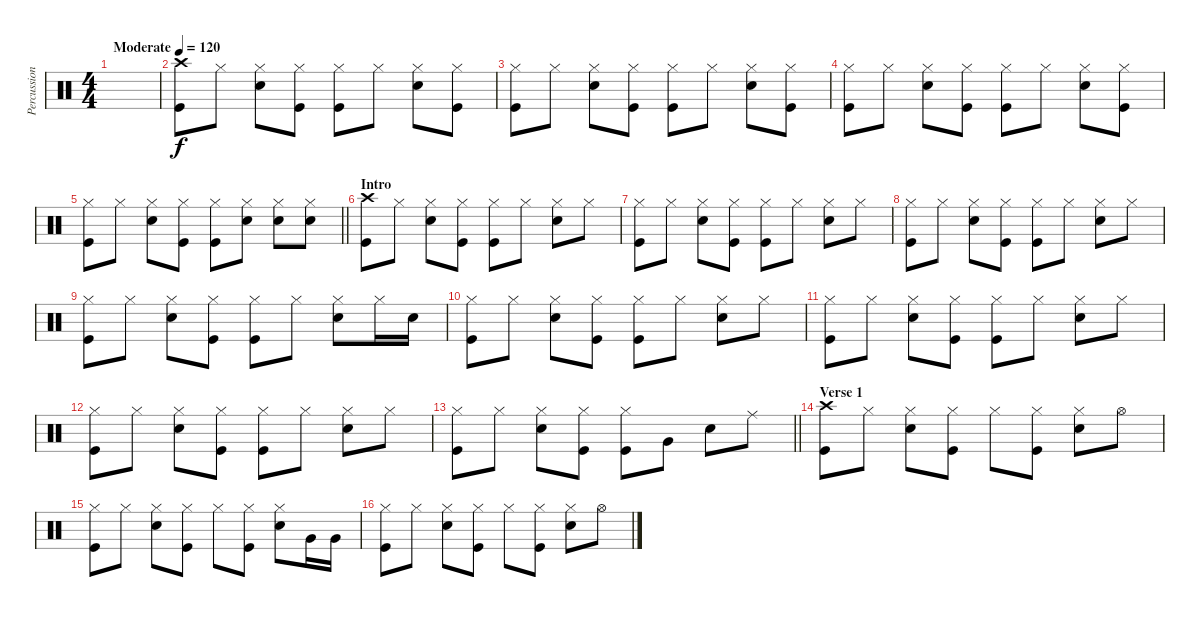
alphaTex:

\track ("Percussion" "Percussion") {instrument percussion}
\staff {score}
\articulation defaults
\ts (4 4)
\tempo (120 "Moderate")
\clef neutral
\ks c
|
("Kick (hit)" "Crash high (hit)").8 "Hi-Hat (closed)".8 ("Hi-Hat (closed)" "Snare (hit) 2").8 ("Kick (hit)" "Hi-Hat (closed)").8 ("Kick (hit)" "Hi-Hat (closed)").8 "Hi-Hat (closed)".8 ("Hi-Hat (closed)" "Snare (hit) 2").8 ("Kick (hit)" "Hi-Hat (closed)").8 |
("Kick (hit)" "Hi-Hat (closed)").8 "Hi-Hat (closed)".8 ("Hi-Hat (closed)" "Snare (hit) 2").8 ("Kick (hit)" "Hi-Hat (closed)").8 ("Kick (hit)" "Hi-Hat (closed)").8 "Hi-Hat (closed)".8 ("Hi-Hat (closed)" "Snare (hit) 2").8 ("Kick (hit)" "Hi-Hat (closed)").8 |
("Kick (hit)" "Hi-Hat (closed)").8 "Hi-Hat (closed)".8 ("Hi-Hat (closed)" "Snare (hit) 2").8 ("Kick (hit)" "Hi-Hat (closed)").8 ("Kick (hit)" "Hi-Hat (closed)").8 "Hi-Hat (closed)".8 ("Hi-Hat (closed)" "Snare (hit) 2").8 ("Kick (hit)" "Hi-Hat (closed)").8 |
\barLineRight lightlight
("Kick (hit)" "Hi-Hat (closed)").8 "Hi-Hat (closed)".8 ("Hi-Hat (closed)" "Snare (hit) 2").8 ("Kick (hit)" "Hi-Hat (closed)").8 ("Kick (hit)" "Hi-Hat (closed)").8 ("Hi-Hat (closed)" "Snare (hit) 2").8 ("Hi-Hat (closed)" "Snare (hit) 2").8 ("Hi-Hat (closed)" "Snare (hit) 2").8 |
\section ("" "Intro")
("Kick (hit)" "Crash high (hit)").8 "Hi-Hat (closed)".8 ("Hi-Hat (closed)" "Snare (hit) 2").8 ("Kick (hit)" "Hi-Hat (closed)").8 ("Kick (hit)" "Hi-Hat (closed)").8 "Hi-Hat (closed)".8 ("Hi-Hat (closed)" "Snare (hit) 2").8 "Hi-Hat (closed)".8 |
("Kick (hit)" "Hi-Hat (closed)").8 "Hi-Hat (closed)".8 ("Hi-Hat (closed)" "Snare (hit) 2").8 ("Kick (hit)" "Hi-Hat (closed)").8 ("Kick (hit)" "Hi-Hat (closed)").8 "Hi-Hat (closed)".8 ("Hi-Hat (closed)" "Snare (hit) 2").8 "Hi-Hat (closed)".8 |
("Kick (hit)" "Hi-Hat (closed)").8 "Hi-Hat (closed)".8 ("Hi-Hat (closed)" "Snare (hit) 2").8 ("Kick (hit)" "Hi-Hat (closed)").8 ("Kick (hit)" "Hi-Hat (closed)").8 "Hi-Hat (closed)".8 ("Hi-Hat (closed)" "Snare (hit) 2").8 "Hi-Hat (closed)".8 |
("Kick (hit)" "Hi-Hat (closed)").8 "Hi-Hat (closed)".8 ("Hi-Hat (closed)" "Snare (hit) 2").8 ("Kick (hit)" "Hi-Hat (closed)").8 ("Kick (hit)" "Hi-Hat (closed)").8 "Hi-Hat (closed)".8 ("Hi-Hat (closed)" "Snare (hit) 2").8 "Hi-Hat (closed)".16 "Snare (hit) 2".16 |
("Kick (hit)" "Hi-Hat (closed)").8 "Hi-Hat (closed)".8 ("Hi-Hat (closed)" "Snare (hit) 2").8 ("Kick (hit)" "Hi-Hat (closed)").8 ("Kick (hit)" "Hi-Hat (closed)").8 "Hi-Hat (closed)".8 ("Hi-Hat (closed)" "Snare (hit) 2").8 "Hi-Hat (closed)".8 |
("Kick (hit)" "Hi-Hat (closed)").8 "Hi-Hat (closed)".8 ("Hi-Hat (closed)" "Snare (hit) 2").8 ("Kick (hit)" "Hi-Hat (closed)").8 ("Kick (hit)" "Hi-Hat (closed)").8 "Hi-Hat (closed)".8 ("Hi-Hat (closed)" "Snare (hit) 2").8 "Hi-Hat (closed)".8 |
("Kick (hit)" "Hi-Hat (closed)").8 "Hi-Hat (closed)".8 ("Hi-Hat (closed)" "Snare (hit) 2").8 ("Kick (hit)" "Hi-Hat (closed)").8 ("Kick (hit)" "Hi-Hat (closed)").8 "Hi-Hat (closed)".8 ("Hi-Hat (closed)" "Snare (hit) 2").8 "Hi-Hat (closed)".8 |
\barLineRight lightlight
("Kick (hit)" "Hi-Hat (closed)").8 "Hi-Hat (closed)".8 ("Hi-Hat (closed)" "Snare (hit) 2").8 ("Kick (hit)" "Hi-Hat (closed)").8 ("Kick (hit)" "Hi-Hat (closed)").8 "Very Low Tom (hit)".8 "Snare (hit) 2".8 "Ride (middle)".8 |
\section ("" "Verse 1")
("Kick (hit)" "Crash high (hit)").8 "Hi-Hat (closed)".8 ("Hi-Hat (closed)" "Snare (hit) 2").8 ("Kick (hit)" "Hi-Hat (closed)").8 "Hi-Hat (closed)".8 ("Kick (hit)" "Hi-Hat (closed)").8 ("Hi-Hat (closed)" "Snare (hit) 2").8 "Hi-Hat (open)".8 |
("Kick (hit)" "Hi-Hat (closed)").8 "Hi-Hat (closed)".8 ("Hi-Hat (closed)" "Snare (hit) 2").8 ("Kick (hit)" "Hi-Hat (closed)").8 "Hi-Hat (closed)".8 ("Kick (hit)" "Hi-Hat (closed)").8 ("Hi-Hat (closed)" "Snare (hit) 2").8 "Very Low Tom (hit)".16 "Very Low Tom (hit)".16 |
("Kick (hit)" "Hi-Hat (closed)").8 "Hi-Hat (closed)".8 ("Hi-Hat (closed)" "Snare (hit) 2").8 ("Kick (hit)" "Hi-Hat (closed)").8 "Hi-Hat (closed)".8 ("Kick (hit)" "Hi-Hat (closed)").8 ("Hi-Hat (closed)" "Snare (hit) 2").8 "Hi-Hat (open)".8
